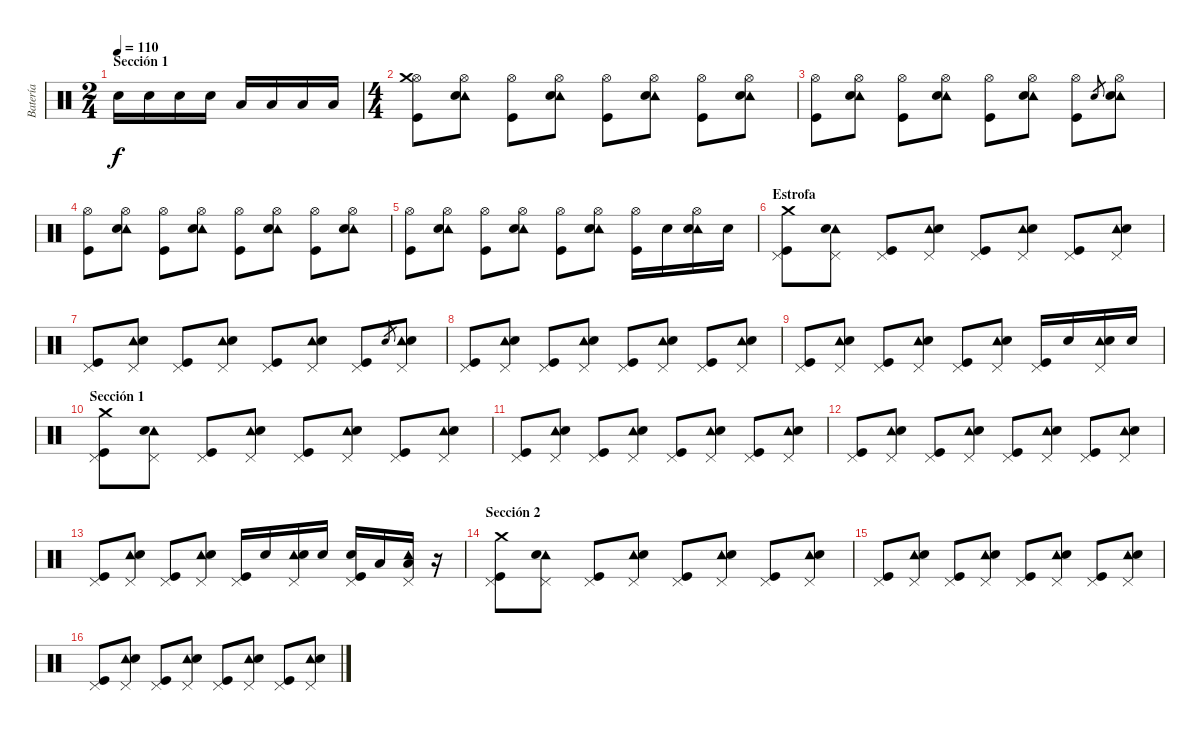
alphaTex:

\track ("Batería" "Batería") {instrument percussion}
\staff {score}
\articulation defaults
\ts (2 4)
\section ("" "Sección 1")
\tempo 110
\clef neutral
\ks c "Electric Snare (hit)".16{dy f} "Electric Snare (hit)".16 "Electric Snare (hit)".16 "Electric Snare (hit)".16 "Low Tom (hit)".16 "Low Tom (hit)".16 "Low Tom (hit)".16 "Low Tom (hit)".16
|
\ts (4 4)
("Hi-Hat (open)" "Crash medium (hit)" "Kick (hit)").8 ("Hi-Hat (open)" "Tambourine (hit)" "Electric Snare (hit)").8 ("Hi-Hat (open)" "Kick (hit)").8 ("Hi-Hat (open)" "Tambourine (hit)" "Electric Snare (hit)").8 ("Hi-Hat (open)" "Kick (hit)").8 ("Hi-Hat (open)" "Tambourine (hit)" "Electric Snare (hit)").8 ("Hi-Hat (open)" "Kick (hit)").8 ("Hi-Hat (open)" "Tambourine (hit)" "Electric Snare (hit)").8 |
("Hi-Hat (open)" "Kick (hit)").8 ("Hi-Hat (open)" "Tambourine (hit)" "Electric Snare (hit)").8 ("Hi-Hat (open)" "Kick (hit)").8 ("Hi-Hat (open)" "Tambourine (hit)" "Electric Snare (hit)").8 ("Hi-Hat (open)" "Kick (hit)").8 ("Hi-Hat (open)" "Tambourine (hit)" "Electric Snare (hit)").8 ("Hi-Hat (open)" "Kick (hit)").8 "Electric Snare (hit)".8{gr} ("Hi-Hat (open)" "Tambourine (hit)" "Electric Snare (hit)").8 |
("Hi-Hat (open)" "Kick (hit)").8 ("Hi-Hat (open)" "Tambourine (hit)" "Electric Snare (hit)").8 ("Hi-Hat (open)" "Kick (hit)").8 ("Hi-Hat (open)" "Tambourine (hit)" "Electric Snare (hit)").8 ("Hi-Hat (open)" "Kick (hit)").8 ("Hi-Hat (open)" "Tambourine (hit)" "Electric Snare (hit)").8 ("Hi-Hat (open)" "Kick (hit)").8 ("Hi-Hat (open)" "Tambourine (hit)" "Electric Snare (hit)").8 |
("Hi-Hat (open)" "Kick (hit)").8 ("Hi-Hat (open)" "Tambourine (hit)" "Electric Snare (hit)").8 ("Hi-Hat (open)" "Kick (hit)").8 ("Hi-Hat (open)" "Tambourine (hit)" "Electric Snare (hit)").8 ("Hi-Hat (open)" "Kick (hit)").8 ("Hi-Hat (open)" "Tambourine (hit)" "Electric Snare (hit)").8 ("Hi-Hat (open)" "Kick (hit)").16 "Electric Snare (hit)".16 ("Hi-Hat (open)" "Tambourine (hit)" "Electric Snare (hit)").16 "Electric Snare (hit)".16 |
\section ("" "Estrofa")
("Pedal Hi-Hat (hit)" "Crash medium (hit)" "Kick (hit)").8 ("Pedal Hi-Hat (hit)" "Tambourine (hit)" "Electric Snare (hit)").8 ("Pedal Hi-Hat (hit)" "Kick (hit)").8 ("Pedal Hi-Hat (hit)" "Tambourine (hit)" "Electric Snare (hit)").8 ("Pedal Hi-Hat (hit)" "Kick (hit)").8 ("Pedal Hi-Hat (hit)" "Tambourine (hit)" "Electric Snare (hit)").8 ("Pedal Hi-Hat (hit)" "Kick (hit)").8 ("Pedal Hi-Hat (hit)" "Tambourine (hit)" "Electric Snare (hit)").8 |
("Pedal Hi-Hat (hit)" "Kick (hit)").8 ("Pedal Hi-Hat (hit)" "Tambourine (hit)" "Electric Snare (hit)").8 ("Pedal Hi-Hat (hit)" "Kick (hit)").8 ("Pedal Hi-Hat (hit)" "Tambourine (hit)" "Electric Snare (hit)").8 ("Pedal Hi-Hat (hit)" "Kick (hit)").8 ("Pedal Hi-Hat (hit)" "Tambourine (hit)" "Electric Snare (hit)").8 ("Pedal Hi-Hat (hit)" "Kick (hit)").8 "Electric Snare (hit)".8{gr} ("Pedal Hi-Hat (hit)" "Tambourine (hit)" "Electric Snare (hit)").8 |
("Pedal Hi-Hat (hit)" "Kick (hit)").8 ("Pedal Hi-Hat (hit)" "Tambourine (hit)" "Electric Snare (hit)").8 ("Pedal Hi-Hat (hit)" "Kick (hit)").8 ("Pedal Hi-Hat (hit)" "Tambourine (hit)" "Electric Snare (hit)").8 ("Pedal Hi-Hat (hit)" "Kick (hit)").8 ("Pedal Hi-Hat (hit)" "Tambourine (hit)" "Electric Snare (hit)").8 ("Pedal Hi-Hat (hit)" "Kick (hit)").8 ("Pedal Hi-Hat (hit)" "Tambourine (hit)" "Electric Snare (hit)").8 |
("Pedal Hi-Hat (hit)" "Kick (hit)").8 ("Pedal Hi-Hat (hit)" "Tambourine (hit)" "Electric Snare (hit)").8 ("Pedal Hi-Hat (hit)" "Kick (hit)").8 ("Pedal Hi-Hat (hit)" "Tambourine (hit)" "Electric Snare (hit)").8 ("Pedal Hi-Hat (hit)" "Kick (hit)").8 ("Pedal Hi-Hat (hit)" "Tambourine (hit)" "Electric Snare (hit)").8 ("Pedal Hi-Hat (hit)" "Kick (hit)").16 "Electric Snare (hit)".16 ("Pedal Hi-Hat (hit)" "Tambourine (hit)" "Electric Snare (hit)").16 "Electric Snare (hit)".16 |
\section ("" "Sección 1")
("Pedal Hi-Hat (hit)" "Crash medium (hit)" "Kick (hit)").8 ("Pedal Hi-Hat (hit)" "Tambourine (hit)" "Electric Snare (hit)").8 ("Pedal Hi-Hat (hit)" "Kick (hit)").8 ("Pedal Hi-Hat (hit)" "Tambourine (hit)" "Electric Snare (hit)").8 ("Pedal Hi-Hat (hit)" "Kick (hit)").8 ("Pedal Hi-Hat (hit)" "Tambourine (hit)" "Electric Snare (hit)").8 ("Pedal Hi-Hat (hit)" "Kick (hit)").8 ("Pedal Hi-Hat (hit)" "Tambourine (hit)" "Electric Snare (hit)").8 |
("Pedal Hi-Hat (hit)" "Kick (hit)").8 ("Pedal Hi-Hat (hit)" "Tambourine (hit)" "Electric Snare (hit)").8 ("Pedal Hi-Hat (hit)" "Kick (hit)").8 ("Pedal Hi-Hat (hit)" "Tambourine (hit)" "Electric Snare (hit)").8 ("Pedal Hi-Hat (hit)" "Kick (hit)").8 ("Pedal Hi-Hat (hit)" "Tambourine (hit)" "Electric Snare (hit)").8 ("Pedal Hi-Hat (hit)" "Kick (hit)").8 ("Pedal Hi-Hat (hit)" "Tambourine (hit)" "Electric Snare (hit)").8 |
("Pedal Hi-Hat (hit)" "Kick (hit)").8 ("Pedal Hi-Hat (hit)" "Tambourine (hit)" "Electric Snare (hit)").8 ("Pedal Hi-Hat (hit)" "Kick (hit)").8 ("Pedal Hi-Hat (hit)" "Tambourine (hit)" "Electric Snare (hit)").8 ("Pedal Hi-Hat (hit)" "Kick (hit)").8 ("Pedal Hi-Hat (hit)" "Tambourine (hit)" "Electric Snare (hit)").8 ("Pedal Hi-Hat (hit)" "Kick (hit)").8 ("Pedal Hi-Hat (hit)" "Tambourine (hit)" "Electric Snare (hit)").8 |
("Pedal Hi-Hat (hit)" "Kick (hit)").8 ("Pedal Hi-Hat (hit)" "Tambourine (hit)" "Electric Snare (hit)").8 ("Pedal Hi-Hat (hit)" "Kick (hit)").8 ("Pedal Hi-Hat (hit)" "Tambourine (hit)" "Electric Snare (hit)").8 ("Pedal Hi-Hat (hit)" "Kick (hit)").16 "Electric Snare (hit)".16 ("Pedal Hi-Hat (hit)" "Tambourine (hit)" "Electric Snare (hit)").16 "Electric Snare (hit)".16 ("Pedal Hi-Hat (hit)" "Electric Snare (hit)" "Kick (hit)").16 "Low Tom (hit)".16 ("Pedal Hi-Hat (hit)" "Tambourine (hit)" "Low Tom (hit)").16 r.16 |
\section ("" "Sección 2")
("Pedal Hi-Hat (hit)" "Crash medium (hit)" "Kick (hit)").8 ("Pedal Hi-Hat (hit)" "Tambourine (hit)" "Electric Snare (hit)").8 ("Pedal Hi-Hat (hit)" "Kick (hit)").8 ("Pedal Hi-Hat (hit)" "Tambourine (hit)" "Electric Snare (hit)").8 ("Pedal Hi-Hat (hit)" "Kick (hit)").8 ("Pedal Hi-Hat (hit)" "Tambourine (hit)" "Electric Snare (hit)").8 ("Pedal Hi-Hat (hit)" "Kick (hit)").8 ("Pedal Hi-Hat (hit)" "Tambourine (hit)" "Electric Snare (hit)").8 |
("Pedal Hi-Hat (hit)" "Kick (hit)").8 ("Pedal Hi-Hat (hit)" "Tambourine (hit)" "Electric Snare (hit)").8 ("Pedal Hi-Hat (hit)" "Kick (hit)").8 ("Pedal Hi-Hat (hit)" "Tambourine (hit)" "Electric Snare (hit)").8 ("Pedal Hi-Hat (hit)" "Kick (hit)").8 ("Pedal Hi-Hat (hit)" "Tambourine (hit)" "Electric Snare (hit)").8 ("Pedal Hi-Hat (hit)" "Kick (hit)").8 ("Pedal Hi-Hat (hit)" "Tambourine (hit)" "Electric Snare (hit)").8 |
("Pedal Hi-Hat (hit)" "Kick (hit)").8 ("Pedal Hi-Hat (hit)" "Tambourine (hit)" "Electric Snare (hit)").8 ("Pedal Hi-Hat (hit)" "Kick (hit)").8 ("Pedal Hi-Hat (hit)" "Tambourine (hit)" "Electric Snare (hit)").8 ("Pedal Hi-Hat (hit)" "Kick (hit)").8 ("Pedal Hi-Hat (hit)" "Tambourine (hit)" "Electric Snare (hit)").8 ("Pedal Hi-Hat (hit)" "Kick (hit)").8 ("Pedal Hi-Hat (hit)" "Tambourine (hit)" "Electric Snare (hit)").8
